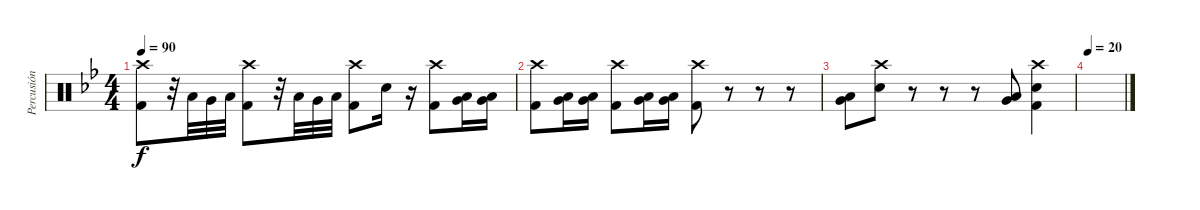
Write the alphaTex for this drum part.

\track ("Percusión" "Percusión") {instrument percussion}
\staff {score}
\articulation defaults
\ts (4 4)
\tempo 90
\clef neutral
\ks bb
("Crash high (hit)" "Kick (hit) 2").8{dy f} r.32 "Low Tom (hit)".32 "Very Low Tom (hit)".32 "Low Tom (hit)".32 ("Crash high (hit)" "Kick (hit) 2").8 r.32 "Low Tom (hit)".32 "Very Low Tom (hit)".32 "Low Tom (hit)".32 ("Crash high (hit)" "Kick (hit) 2").8 "Snare (hit) 2".16 r.16 ("Crash high (hit)" "Kick (hit) 2").8 ("Very Low Tom (hit)" "Low Tom (hit)").16 ("Very Low Tom (hit)" "Low Tom (hit)").16 |
("Crash high (hit)" "Kick (hit) 2").8 ("Very Low Tom (hit)" "Low Tom (hit)").16 ("Very Low Tom (hit)" "Low Tom (hit)").16 ("Crash high (hit)" "Kick (hit) 2").8 ("Very Low Tom (hit)" "Low Tom (hit)").16 ("Very Low Tom (hit)" "Low Tom (hit)").16 ("Crash high (hit)" "Kick (hit) 2").8 r.8 r.8 r.8 |
("Low Tom (hit)" "Very Low Tom (hit)").8 ("Crash high (hit)" "Snare (hit) 2").8 r.8 r.8 r.8 ("Low Tom (hit)" "Very Low Tom (hit)").8 ("Crash high (hit)" "Snare (hit) 2" "Kick (hit) 2").4 |
\tempo 20
